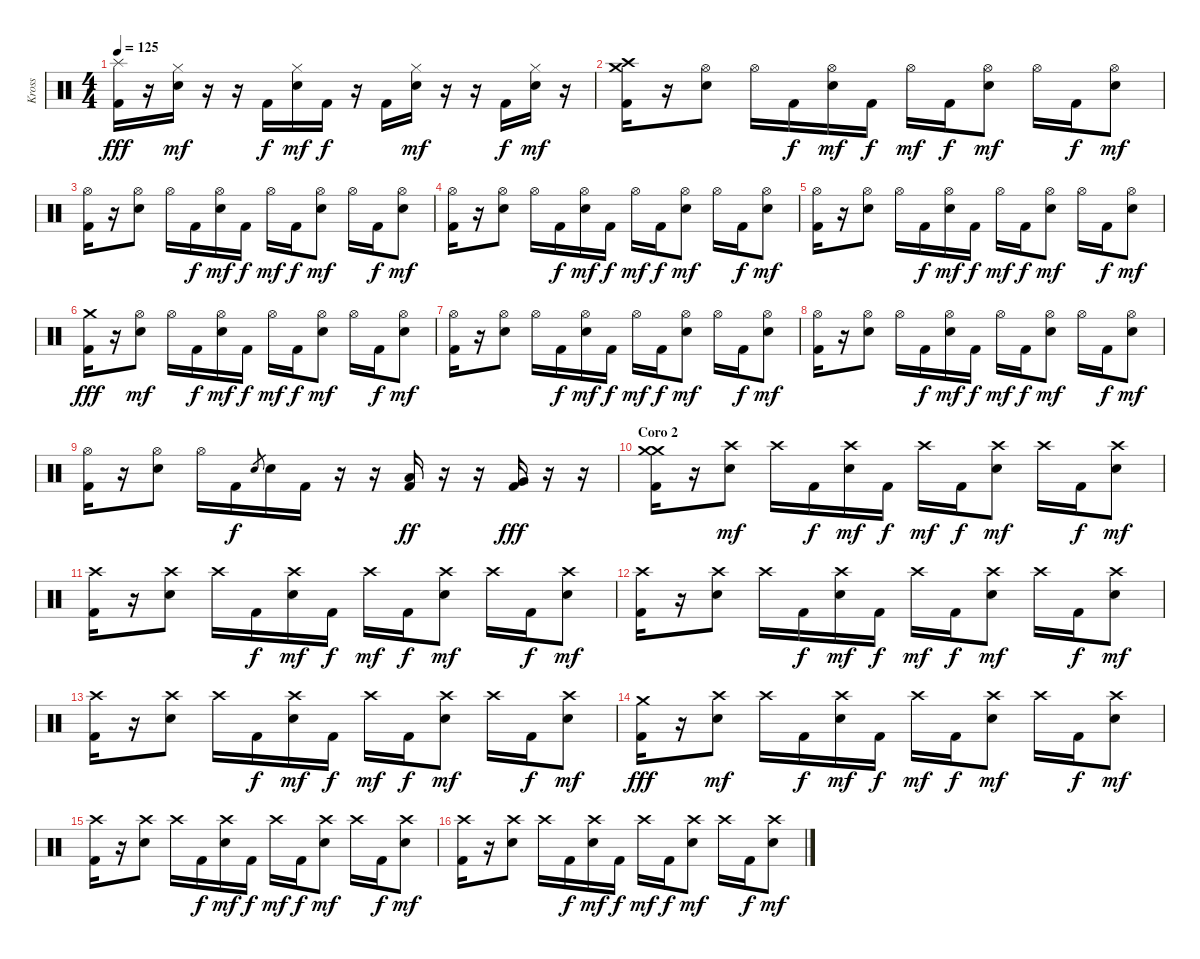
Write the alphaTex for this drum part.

\track ("Kross" "Kross") {instrument percussion}
\staff {score}
\articulation defaults
\ts (4 4)
\tempo 125
\clef neutral
\ks c
("Splash (hit)" "Kick (hit) 2").16{dy fff} r.16 ("Hi-Hat (closed)" "Electric Snare (hit)").16{dy mf} r.16 r.16 "Kick (hit) 2".16{dy f} ("Hi-Hat (closed)" "Electric Snare (hit)").16{dy mf} "Kick (hit) 2".16{dy f} r.16 "Kick (hit) 2".16 ("Hi-Hat (closed)" "Electric Snare (hit)").16{dy mf} r.16 r.16 "Kick (hit) 2".16{dy f} ("Hi-Hat (closed)" "Electric Snare (hit)").16{dy mf} r.16 |
("Crash medium (hit)" "Crash high (hit)" "Kick (hit) 2").16 r.16 ("Hi-Hat (open)" "Electric Snare (hit)").8 "Hi-Hat (open)".16 "Kick (hit) 2".16{dy f} ("Hi-Hat (open)" "Electric Snare (hit)").16{dy mf} "Kick (hit) 2".16{dy f} "Hi-Hat (open)".16{dy mf} "Kick (hit) 2".16{dy f} ("Hi-Hat (open)" "Electric Snare (hit)").8{dy mf} "Hi-Hat (open)".16 "Kick (hit) 2".16{dy f} ("Hi-Hat (open)" "Electric Snare (hit)").8{dy mf} |
("Hi-Hat (open)" "Kick (hit) 2").16 r.16 ("Hi-Hat (open)" "Electric Snare (hit)").8 "Hi-Hat (open)".16 "Kick (hit) 2".16{dy f} ("Hi-Hat (open)" "Electric Snare (hit)").16{dy mf} "Kick (hit) 2".16{dy f} "Hi-Hat (open)".16{dy mf} "Kick (hit) 2".16{dy f} ("Hi-Hat (open)" "Electric Snare (hit)").8{dy mf} "Hi-Hat (open)".16 "Kick (hit) 2".16{dy f} ("Hi-Hat (open)" "Electric Snare (hit)").8{dy mf} |
("Hi-Hat (open)" "Kick (hit) 2").16 r.16 ("Hi-Hat (open)" "Electric Snare (hit)").8 "Hi-Hat (open)".16 "Kick (hit) 2".16{dy f} ("Hi-Hat (open)" "Electric Snare (hit)").16{dy mf} "Kick (hit) 2".16{dy f} "Hi-Hat (open)".16{dy mf} "Kick (hit) 2".16{dy f} ("Hi-Hat (open)" "Electric Snare (hit)").8{dy mf} "Hi-Hat (open)".16 "Kick (hit) 2".16{dy f} ("Hi-Hat (open)" "Electric Snare (hit)").8{dy mf} |
("Hi-Hat (open)" "Kick (hit) 2").16 r.16 ("Hi-Hat (open)" "Electric Snare (hit)").8 "Hi-Hat (open)".16 "Kick (hit) 2".16{dy f} ("Hi-Hat (open)" "Electric Snare (hit)").16{dy mf} "Kick (hit) 2".16{dy f} "Hi-Hat (open)".16{dy mf} "Kick (hit) 2".16{dy f} ("Hi-Hat (open)" "Electric Snare (hit)").8{dy mf} "Hi-Hat (open)".16 "Kick (hit) 2".16{dy f} ("Hi-Hat (open)" "Electric Snare (hit)").8{dy mf} |
("Crash medium (hit)" "Kick (hit) 2").16{dy fff} r.16 ("Hi-Hat (open)" "Electric Snare (hit)").8{dy mf} "Hi-Hat (open)".16 "Kick (hit) 2".16{dy f} ("Hi-Hat (open)" "Electric Snare (hit)").16{dy mf} "Kick (hit) 2".16{dy f} "Hi-Hat (open)".16{dy mf} "Kick (hit) 2".16{dy f} ("Hi-Hat (open)" "Electric Snare (hit)").8{dy mf} "Hi-Hat (open)".16 "Kick (hit) 2".16{dy f} ("Hi-Hat (open)" "Electric Snare (hit)").8{dy mf} |
("Hi-Hat (open)" "Kick (hit) 2").16 r.16 ("Hi-Hat (open)" "Electric Snare (hit)").8 "Hi-Hat (open)".16 "Kick (hit) 2".16{dy f} ("Hi-Hat (open)" "Electric Snare (hit)").16{dy mf} "Kick (hit) 2".16{dy f} "Hi-Hat (open)".16{dy mf} "Kick (hit) 2".16{dy f} ("Hi-Hat (open)" "Electric Snare (hit)").8{dy mf} "Hi-Hat (open)".16 "Kick (hit) 2".16{dy f} ("Hi-Hat (open)" "Electric Snare (hit)").8{dy mf} |
("Hi-Hat (open)" "Kick (hit) 2").16 r.16 ("Hi-Hat (open)" "Electric Snare (hit)").8 "Hi-Hat (open)".16 "Kick (hit) 2".16{dy f} ("Hi-Hat (open)" "Electric Snare (hit)").16{dy mf} "Kick (hit) 2".16{dy f} "Hi-Hat (open)".16{dy mf} "Kick (hit) 2".16{dy f} ("Hi-Hat (open)" "Electric Snare (hit)").8{dy mf} "Hi-Hat (open)".16 "Kick (hit) 2".16{dy f} ("Hi-Hat (open)" "Electric Snare (hit)").8{dy mf} |
("Hi-Hat (open)" "Kick (hit) 2").16 r.16 ("Hi-Hat (open)" "Electric Snare (hit)").8 "Hi-Hat (open)".16 "Kick (hit) 2".16{dy f} "Electric Snare (hit)".8{gr} "Electric Snare (hit)".16 "Kick (hit) 2".16 r.16 r.16 ("Low Tom (hit)" "Kick (hit) 2").16{dy ff} r.16 r.16 ("Very Low Tom (hit)" "Kick (hit) 2").16{dy fff} r.16 r.16 |
\section ("" "Coro 2")
("Crash medium (hit)" "Crash medium (hit)" "Kick (hit) 2").16 r.16 ("Crash high (hit)" "Electric Snare (hit)").8{dy mf} "Crash high (hit)".16 "Kick (hit) 2".16{dy f} ("Crash high (hit)" "Electric Snare (hit)").16{dy mf} "Kick (hit) 2".16{dy f} "Crash high (hit)".16{dy mf} "Kick (hit) 2".16{dy f} ("Crash high (hit)" "Electric Snare (hit)").8{dy mf} "Crash high (hit)".16 "Kick (hit) 2".16{dy f} ("Crash high (hit)" "Electric Snare (hit)").8{dy mf} |
("Crash high (hit)" "Kick (hit) 2").16 r.16 ("Crash high (hit)" "Electric Snare (hit)").8 "Crash high (hit)".16 "Kick (hit) 2".16{dy f} ("Crash high (hit)" "Electric Snare (hit)").16{dy mf} "Kick (hit) 2".16{dy f} "Crash high (hit)".16{dy mf} "Kick (hit) 2".16{dy f} ("Crash high (hit)" "Electric Snare (hit)").8{dy mf} "Crash high (hit)".16 "Kick (hit) 2".16{dy f} ("Crash high (hit)" "Electric Snare (hit)").8{dy mf} |
("Crash high (hit)" "Kick (hit) 2").16 r.16 ("Crash high (hit)" "Electric Snare (hit)").8 "Crash high (hit)".16 "Kick (hit) 2".16{dy f} ("Crash high (hit)" "Electric Snare (hit)").16{dy mf} "Kick (hit) 2".16{dy f} "Crash high (hit)".16{dy mf} "Kick (hit) 2".16{dy f} ("Crash high (hit)" "Electric Snare (hit)").8{dy mf} "Crash high (hit)".16 "Kick (hit) 2".16{dy f} ("Crash high (hit)" "Electric Snare (hit)").8{dy mf} |
("Crash high (hit)" "Kick (hit) 2").16 r.16 ("Crash high (hit)" "Electric Snare (hit)").8 "Crash high (hit)".16 "Kick (hit) 2".16{dy f} ("Crash high (hit)" "Electric Snare (hit)").16{dy mf} "Kick (hit) 2".16{dy f} "Crash high (hit)".16{dy mf} "Kick (hit) 2".16{dy f} ("Crash high (hit)" "Electric Snare (hit)").8{dy mf} "Crash high (hit)".16 "Kick (hit) 2".16{dy f} ("Crash high (hit)" "Electric Snare (hit)").8{dy mf} |
("Crash medium (hit)" "Kick (hit) 2").16{dy fff} r.16 ("Crash high (hit)" "Electric Snare (hit)").8{dy mf} "Crash high (hit)".16 "Kick (hit) 2".16{dy f} ("Crash high (hit)" "Electric Snare (hit)").16{dy mf} "Kick (hit) 2".16{dy f} "Crash high (hit)".16{dy mf} "Kick (hit) 2".16{dy f} ("Crash high (hit)" "Electric Snare (hit)").8{dy mf} "Crash high (hit)".16 "Kick (hit) 2".16{dy f} ("Crash high (hit)" "Electric Snare (hit)").8{dy mf} |
("Crash high (hit)" "Kick (hit) 2").16 r.16 ("Crash high (hit)" "Electric Snare (hit)").8 "Crash high (hit)".16 "Kick (hit) 2".16{dy f} ("Crash high (hit)" "Electric Snare (hit)").16{dy mf} "Kick (hit) 2".16{dy f} "Crash high (hit)".16{dy mf} "Kick (hit) 2".16{dy f} ("Crash high (hit)" "Electric Snare (hit)").8{dy mf} "Crash high (hit)".16 "Kick (hit) 2".16{dy f} ("Crash high (hit)" "Electric Snare (hit)").8{dy mf} |
("Crash high (hit)" "Kick (hit) 2").16 r.16 ("Crash high (hit)" "Electric Snare (hit)").8 "Crash high (hit)".16 "Kick (hit) 2".16{dy f} ("Crash high (hit)" "Electric Snare (hit)").16{dy mf} "Kick (hit) 2".16{dy f} "Crash high (hit)".16{dy mf} "Kick (hit) 2".16{dy f} ("Crash high (hit)" "Electric Snare (hit)").8{dy mf} "Crash high (hit)".16 "Kick (hit) 2".16{dy f} ("Crash high (hit)" "Electric Snare (hit)").8{dy mf}
